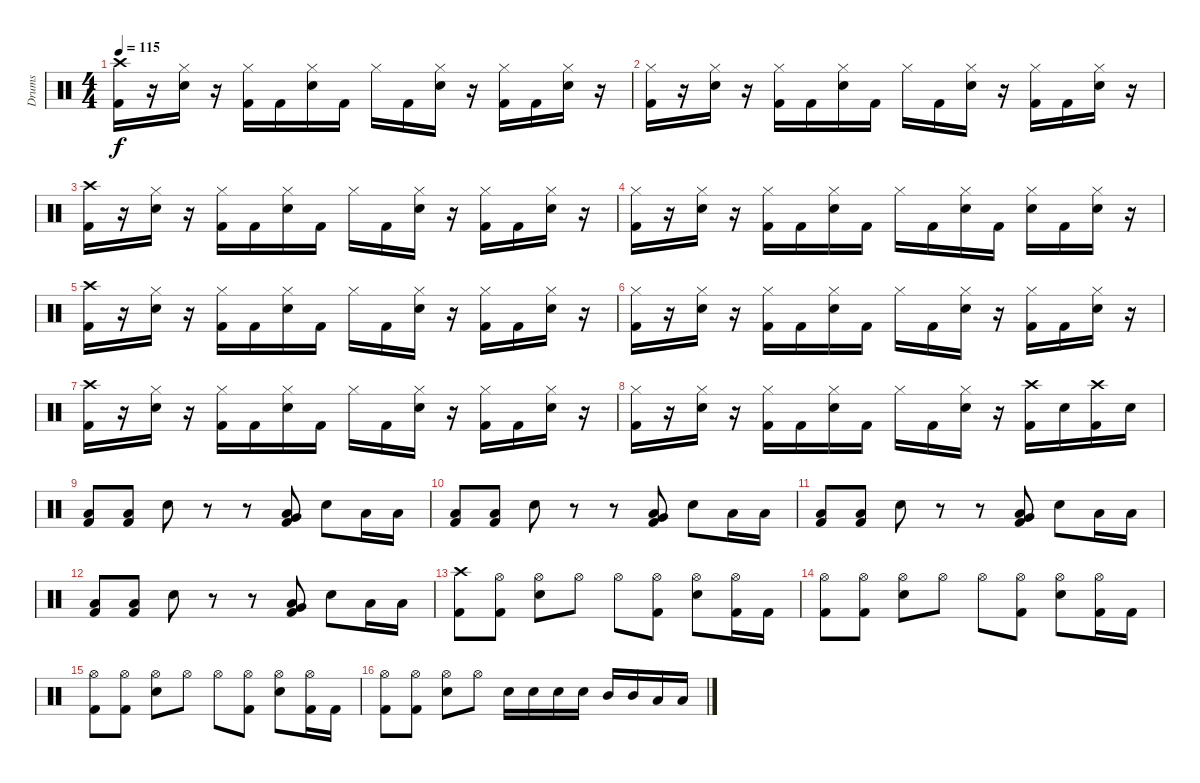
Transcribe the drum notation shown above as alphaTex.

\track ("Drums" "Drums") {instrument percussion}
\staff {score}
\articulation defaults
\ts (4 4)
\tempo 115
\clef neutral
\ks c
("Crash high (hit)" "Kick (hit) 2").16{dy f} r.16 ("Hi-Hat (closed)" "Snare (hit) 2").16 r.16 ("Hi-Hat (closed)" "Kick (hit) 2").16 "Kick (hit) 2".16 ("Hi-Hat (closed)" "Snare (hit) 2").16 "Kick (hit) 2".16 "Hi-Hat (closed)".16 "Kick (hit) 2".16 ("Hi-Hat (closed)" "Snare (hit) 2").16 r.16 ("Hi-Hat (closed)" "Kick (hit) 2").16 "Kick (hit) 2".16 ("Hi-Hat (closed)" "Snare (hit) 2").16 r.16 |
("Hi-Hat (closed)" "Kick (hit) 2").16 r.16 ("Hi-Hat (closed)" "Snare (hit) 2").16 r.16 ("Hi-Hat (closed)" "Kick (hit) 2").16 "Kick (hit) 2".16 ("Hi-Hat (closed)" "Snare (hit) 2").16 "Kick (hit) 2".16 "Hi-Hat (closed)".16 "Kick (hit) 2".16 ("Hi-Hat (closed)" "Snare (hit) 2").16 r.16 ("Hi-Hat (closed)" "Kick (hit) 2").16 "Kick (hit) 2".16 ("Hi-Hat (closed)" "Snare (hit) 2").16 r.16 |
("Crash high (hit)" "Kick (hit) 2").16 r.16 ("Hi-Hat (closed)" "Snare (hit) 2").16 r.16 ("Hi-Hat (closed)" "Kick (hit) 2").16 "Kick (hit) 2".16 ("Hi-Hat (closed)" "Snare (hit) 2").16 "Kick (hit) 2".16 "Hi-Hat (closed)".16 "Kick (hit) 2".16 ("Hi-Hat (closed)" "Snare (hit) 2").16 r.16 ("Hi-Hat (closed)" "Kick (hit) 2").16 "Kick (hit) 2".16 ("Hi-Hat (closed)" "Snare (hit) 2").16 r.16 |
("Hi-Hat (closed)" "Kick (hit) 2").16 r.16 ("Hi-Hat (closed)" "Snare (hit) 2").16 r.16 ("Hi-Hat (closed)" "Kick (hit) 2").16 "Kick (hit) 2".16 ("Hi-Hat (closed)" "Snare (hit) 2").16 "Kick (hit) 2".16 "Hi-Hat (closed)".16 "Kick (hit) 2".16 ("Hi-Hat (closed)" "Snare (hit) 2").16 "Kick (hit) 2".16 ("Hi-Hat (closed)" "Snare (hit) 2").16 "Kick (hit) 2".16 ("Hi-Hat (closed)" "Snare (hit) 2").16 r.16 |
("Crash high (hit)" "Kick (hit) 2").16 r.16 ("Hi-Hat (closed)" "Snare (hit) 2").16 r.16 ("Hi-Hat (closed)" "Kick (hit) 2").16 "Kick (hit) 2".16 ("Hi-Hat (closed)" "Snare (hit) 2").16 "Kick (hit) 2".16 "Hi-Hat (closed)".16 "Kick (hit) 2".16 ("Hi-Hat (closed)" "Snare (hit) 2").16 r.16 ("Hi-Hat (closed)" "Kick (hit) 2").16 "Kick (hit) 2".16 ("Hi-Hat (closed)" "Snare (hit) 2").16 r.16 |
("Hi-Hat (closed)" "Kick (hit) 2").16 r.16 ("Hi-Hat (closed)" "Snare (hit) 2").16 r.16 ("Hi-Hat (closed)" "Kick (hit) 2").16 "Kick (hit) 2".16 ("Hi-Hat (closed)" "Snare (hit) 2").16 "Kick (hit) 2".16 "Hi-Hat (closed)".16 "Kick (hit) 2".16 ("Hi-Hat (closed)" "Snare (hit) 2").16 r.16 ("Hi-Hat (closed)" "Kick (hit) 2").16 "Kick (hit) 2".16 ("Hi-Hat (closed)" "Snare (hit) 2").16 r.16 |
("Crash high (hit)" "Kick (hit) 2").16 r.16 ("Hi-Hat (closed)" "Snare (hit) 2").16 r.16 ("Hi-Hat (closed)" "Kick (hit) 2").16 "Kick (hit) 2".16 ("Hi-Hat (closed)" "Snare (hit) 2").16 "Kick (hit) 2".16 "Hi-Hat (closed)".16 "Kick (hit) 2".16 ("Hi-Hat (closed)" "Snare (hit) 2").16 r.16 ("Hi-Hat (closed)" "Kick (hit) 2").16 "Kick (hit) 2".16 ("Hi-Hat (closed)" "Snare (hit) 2").16 r.16 |
("Hi-Hat (closed)" "Kick (hit) 2").16 r.16 ("Hi-Hat (closed)" "Snare (hit) 2").16 r.16 ("Hi-Hat (closed)" "Kick (hit) 2").16 "Kick (hit) 2".16 ("Hi-Hat (closed)" "Snare (hit) 2").16 "Kick (hit) 2".16 "Hi-Hat (closed)".16 "Kick (hit) 2".16 ("Hi-Hat (closed)" "Snare (hit) 2").16 r.16 ("Crash high (hit)" "Kick (hit) 2").16 "Snare (hit) 2".16 ("Crash high (hit)" "Kick (hit) 2").16 "Snare (hit) 2".16 |
("Low Tom (hit)" "Kick (hit) 2").8 ("Low Tom (hit)" "Kick (hit) 2").8 "Snare (hit) 2".8 r.8 r.8 ("Low Floor Tom (hit)" "Very Low Tom (hit)" "Kick (hit) 2").8 "Snare (hit) 2".8 "Low Tom (hit)".16 "Low Tom (hit)".16 |
("Low Tom (hit)" "Kick (hit) 2").8 ("Low Tom (hit)" "Kick (hit) 2").8 "Snare (hit) 2".8 r.8 r.8 ("Low Floor Tom (hit)" "Very Low Tom (hit)" "Kick (hit) 2").8 "Snare (hit) 2".8 "Low Tom (hit)".16 "Low Tom (hit)".16 |
("Low Tom (hit)" "Kick (hit) 2").8 ("Low Tom (hit)" "Kick (hit) 2").8 "Snare (hit) 2".8 r.8 r.8 ("Low Floor Tom (hit)" "Very Low Tom (hit)" "Kick (hit) 2").8 "Snare (hit) 2".8 "Low Tom (hit)".16 "Low Tom (hit)".16 |
("Low Tom (hit)" "Kick (hit) 2").8 ("Low Tom (hit)" "Kick (hit) 2").8 "Snare (hit) 2".8 r.8 r.8 ("Low Floor Tom (hit)" "Very Low Tom (hit)" "Kick (hit) 2").8 "Snare (hit) 2".8 "Low Tom (hit)".16 "Low Tom (hit)".16 |
("Crash high (hit)" "Kick (hit) 2").8 ("Hi-Hat (open)" "Kick (hit) 2").8 ("Hi-Hat (open)" "Snare (hit) 2").8 "Hi-Hat (open)".8 "Hi-Hat (open)".8 ("Hi-Hat (open)" "Kick (hit) 2").8 ("Hi-Hat (open)" "Snare (hit) 2").8 ("Hi-Hat (open)" "Kick (hit) 2").16 "Kick (hit) 2".16 |
("Hi-Hat (open)" "Kick (hit) 2").8 ("Hi-Hat (open)" "Kick (hit) 2").8 ("Hi-Hat (open)" "Snare (hit) 2").8 "Hi-Hat (open)".8 "Hi-Hat (open)".8 ("Hi-Hat (open)" "Kick (hit) 2").8 ("Hi-Hat (open)" "Snare (hit) 2").8 ("Hi-Hat (open)" "Kick (hit) 2").16 "Kick (hit) 2".16 |
("Hi-Hat (open)" "Kick (hit) 2").8 ("Hi-Hat (open)" "Kick (hit) 2").8 ("Hi-Hat (open)" "Snare (hit) 2").8 "Hi-Hat (open)".8 "Hi-Hat (open)".8 ("Hi-Hat (open)" "Kick (hit) 2").8 ("Hi-Hat (open)" "Snare (hit) 2").8 ("Hi-Hat (open)" "Kick (hit) 2").16 "Kick (hit) 2".16 |
("Hi-Hat (open)" "Kick (hit) 2").8 ("Hi-Hat (open)" "Kick (hit) 2").8 ("Hi-Hat (open)" "Snare (hit) 2").8 "Hi-Hat (open)".8 "Snare (hit) 2".16 "Snare (hit) 2".16 "Snare (hit) 2".16 "Snare (hit) 2".16 "Mid Tom (hit)".16 "Mid Tom (hit)".16 "Low Tom (hit)".16 "Low Tom (hit)".16
